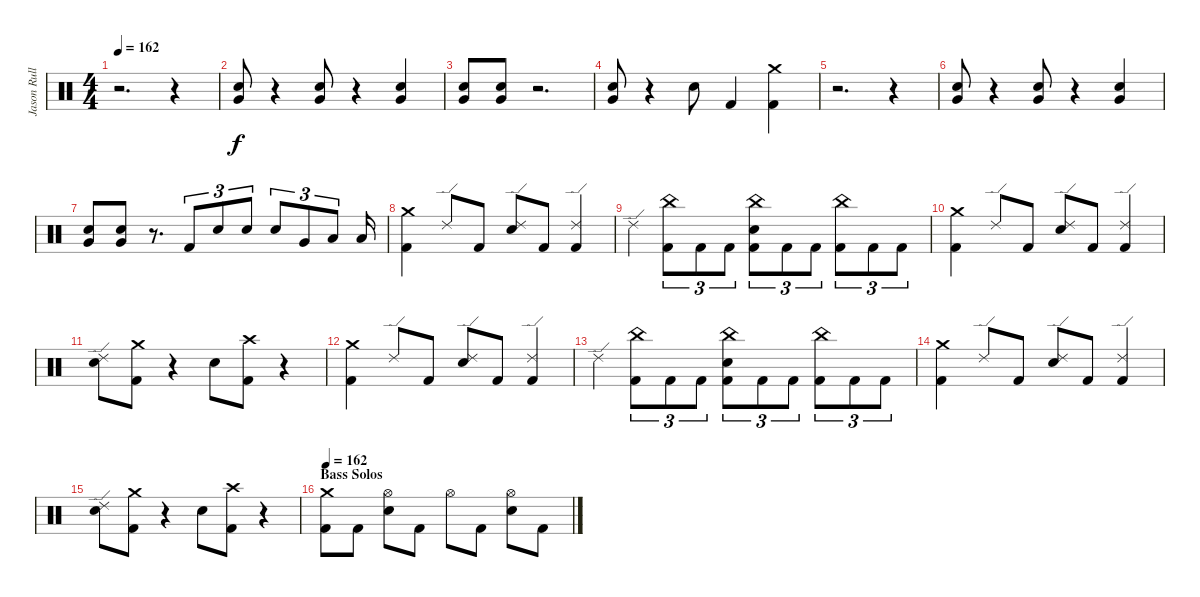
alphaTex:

\track ("Jason Rullo" "Jason Rull") {instrument percussion}
\staff {score}
\articulation defaults
\ts (4 4)
\tempo 162
\clef neutral
\ks c
r.2{d dy f} r.4 |
("Very Low Tom (hit)" "Electric Snare (hit)").8 r.4 ("Very Low Tom (hit)" "Electric Snare (hit)").8 r.4 ("Very Low Tom (hit)" "Electric Snare (hit)").4 |
("Very Low Tom (hit)" "Electric Snare (hit)").8 ("Very Low Tom (hit)" "Electric Snare (hit)").8 r.2{d} |
("Very Low Tom (hit)" "Electric Snare (hit)").8 r.4 "Electric Snare (hit)".8 "Kick (hit) 2".4 ("Crash medium (hit)" "Kick (hit) 2").4 |
r.2{d} r.4 |
("Very Low Tom (hit)" "Electric Snare (hit)").8 r.4 ("Very Low Tom (hit)" "Electric Snare (hit)").8 r.4 ("Very Low Tom (hit)" "Electric Snare (hit)").4 |
("Very Low Tom (hit)" "Electric Snare (hit)").8 ("Very Low Tom (hit)" "Electric Snare (hit)").8 r.8{d} "Kick (hit) 2".8{tu (3 2)} "Electric Snare (hit)".8{tu (3 2)} "Electric Snare (hit)".8{tu (3 2)} "Electric Snare (hit)".8{tu (3 2)} "Very Low Tom (hit)".8{tu (3 2)} "Low Floor Tom (hit)".8{tu (3 2)} "Low Floor Tom (hit)".16 |
("Kick (hit) 2" "Crash medium (hit)").4 "Ride (edge) 2".8 "Kick (hit) 2".8 ("Electric Snare (hit)" "Ride (edge) 2").8 "Kick (hit) 2".8 ("Kick (hit) 2" "Ride (edge) 2").4 |
"Ride (edge) 2".4 ("Kick (hit) 2" "China (hit)").8{tu (3 2)} "Kick (hit) 2".8{tu (3 2)} "Kick (hit) 2".8{tu (3 2)} ("Electric Snare (hit)" "Kick (hit) 2" "China (hit)").8{tu (3 2)} "Kick (hit) 2".8{tu (3 2)} "Kick (hit) 2".8{tu (3 2)} ("Kick (hit) 2" "China (hit)").8{tu (3 2)} "Kick (hit) 2".8{tu (3 2)} "Kick (hit) 2".8{tu (3 2)} |
("Kick (hit) 2" "Crash medium (hit)").4 "Ride (edge) 2".8 "Kick (hit) 2".8 ("Electric Snare (hit)" "Ride (edge) 2").8 "Kick (hit) 2".8 ("Kick (hit) 2" "Ride (edge) 2").4 |
("Electric Snare (hit)" "Ride (edge) 2").8 ("Crash medium (hit)" "Kick (hit) 2").8 r.4 "Electric Snare (hit)".8 ("Crash high (hit)" "Kick (hit) 2").8 r.4 |
("Kick (hit) 2" "Crash medium (hit)").4 "Ride (edge) 2".8 "Kick (hit) 2".8 ("Electric Snare (hit)" "Ride (edge) 2").8 "Kick (hit) 2".8 ("Kick (hit) 2" "Ride (edge) 2").4 |
"Ride (edge) 2".4 ("Kick (hit) 2" "China (hit)").8{tu (3 2)} "Kick (hit) 2".8{tu (3 2)} "Kick (hit) 2".8{tu (3 2)} ("Electric Snare (hit)" "Kick (hit) 2" "China (hit)").8{tu (3 2)} "Kick (hit) 2".8{tu (3 2)} "Kick (hit) 2".8{tu (3 2)} ("Kick (hit) 2" "China (hit)").8{tu (3 2)} "Kick (hit) 2".8{tu (3 2)} "Kick (hit) 2".8{tu (3 2)} |
("Kick (hit) 2" "Crash medium (hit)").4 "Ride (edge) 2".8 "Kick (hit) 2".8 ("Electric Snare (hit)" "Ride (edge) 2").8 "Kick (hit) 2".8 ("Kick (hit) 2" "Ride (edge) 2").4 |
("Electric Snare (hit)" "Ride (edge) 2").8 ("Crash medium (hit)" "Kick (hit) 2").8 r.4 "Electric Snare (hit)".8 ("Crash high (hit)" "Kick (hit) 2").8 r.4 |
\section ("" "Bass Solos")
\tempo 162
("Kick (hit) 2" "Crash medium (hit)").8 "Kick (hit) 2".8 ("Electric Snare (hit)" "Hi-Hat (open)").8 "Kick (hit) 2".8 "Hi-Hat (open)".8 "Kick (hit) 2".8 ("Electric Snare (hit)" "Hi-Hat (open)").8 "Kick (hit) 2".8
